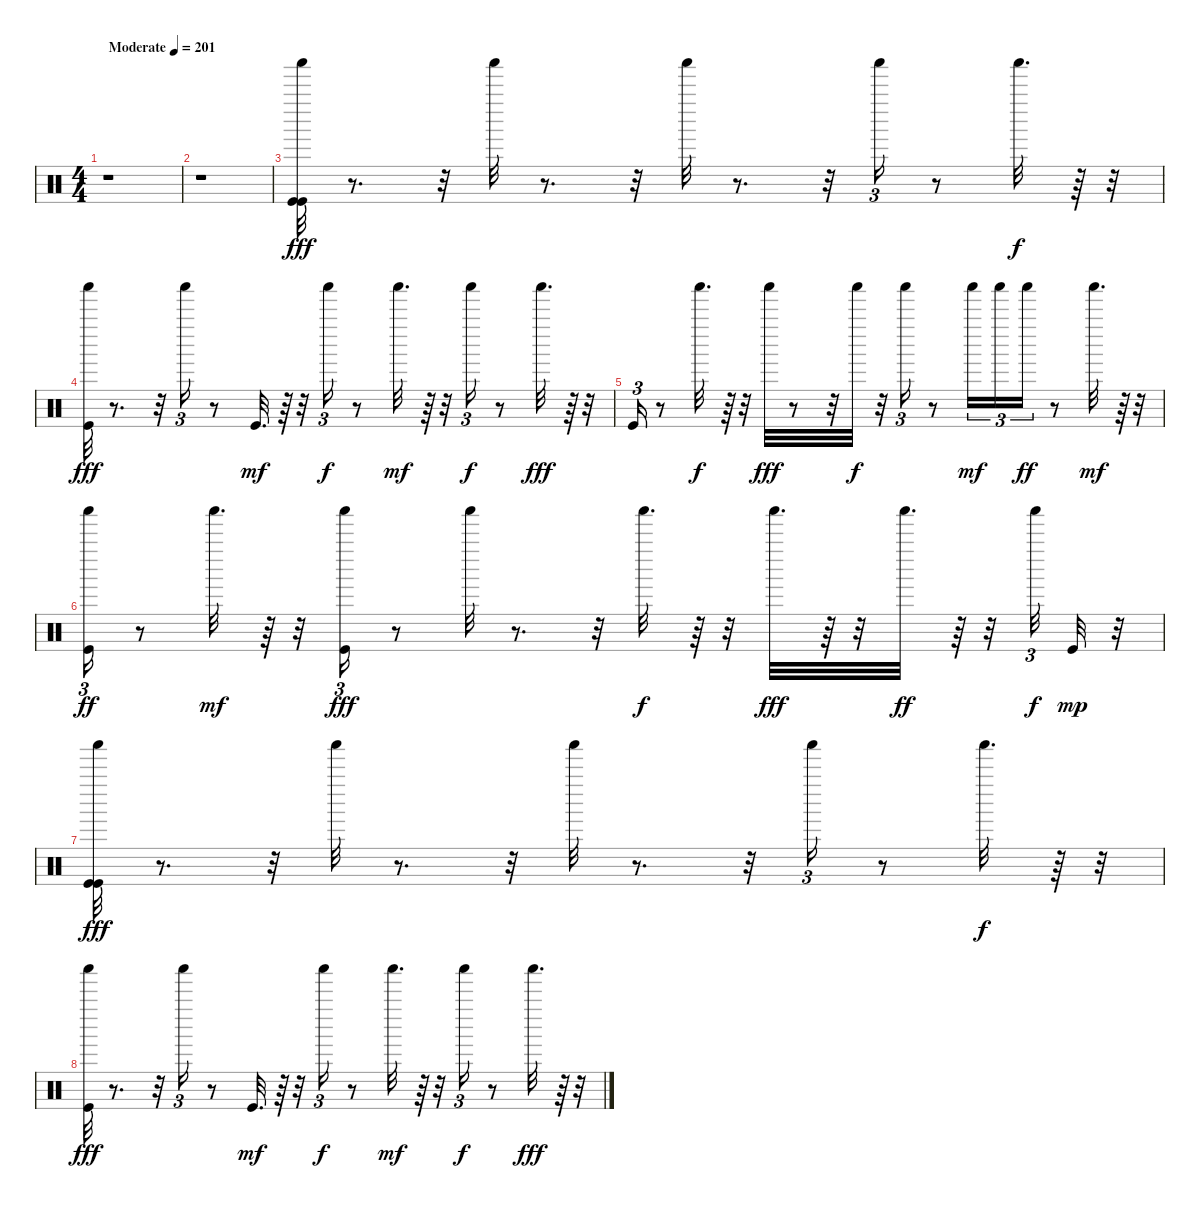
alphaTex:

\track "" {instrument percussion}
\staff {score}
\articulation defaults
\ts (4 4)
\tempo (201 "Moderate")
\clef neutral
\ks c
r.1{dy fff} |
r.1 |
("Shaker (hit)" "Kick (hit)" "Kick (hit)").32 r.8{d} r.32 "Shaker (hit)".32 r.8{d} r.32 "Shaker (hit)".32 r.8{d} r.32 "Shaker (hit)".16{tu (3 2)} r.8 "Shaker (hit)".32{d dy f} r.64 r.32 |
("Shaker (hit)" "Kick (hit)").32{dy fff} r.8{d} r.32 "Shaker (hit)".16{tu (3 2)} r.8 "Kick (hit)".32{d dy mf} r.64 r.32 "Shaker (hit)".16{tu (3 2) dy f} r.8 "Shaker (hit)".32{d dy mf} r.64 r.32 "Shaker (hit)".16{tu (3 2) dy f} r.8 "Shaker (hit)".32{d dy fff} r.64 r.32 |
"Kick (hit)".16{tu (3 2)} r.8 "Shaker (hit)".32{d dy f} r.64 r.32 "Shaker (hit)".32{dy fff} r.8 r.32 "Shaker (hit)".32{dy f} r.32 "Shaker (hit)".16{tu (3 2)} r.8 "Shaker (hit)".16{tu (3 2) dy mf} "Shaker (hit)".16{tu (3 2)} "Shaker (hit)".16{tu (3 2) dy ff} r.8 "Shaker (hit)".32{d dy mf} r.64 r.32 |
("Shaker (hit)" "Kick (hit)").16{tu (3 2) dy ff} r.8 "Shaker (hit)".32{d dy mf} r.64 r.32 ("Shaker (hit)" "Kick (hit)").16{tu (3 2) dy fff} r.8 "Shaker (hit)".32 r.8{d} r.32 "Shaker (hit)".32{d dy f} r.64 r.32 "Shaker (hit)".32{d dy fff} r.64 r.32 "Shaker (hit)".32{d dy ff} r.64 r.32 "Shaker (hit)".32{tu (3 2) dy f} "Kick (hit)".32{dy mp} r.32 |
("Shaker (hit)" "Kick (hit)" "Kick (hit)").32{dy fff} r.8{d} r.32 "Shaker (hit)".32 r.8{d} r.32 "Shaker (hit)".32 r.8{d} r.32 "Shaker (hit)".16{tu (3 2)} r.8 "Shaker (hit)".32{d dy f} r.64 r.32 |
("Shaker (hit)" "Kick (hit)").32{dy fff} r.8{d} r.32 "Shaker (hit)".16{tu (3 2)} r.8 "Kick (hit)".32{d dy mf} r.64 r.32 "Shaker (hit)".16{tu (3 2) dy f} r.8 "Shaker (hit)".32{d dy mf} r.64 r.32 "Shaker (hit)".16{tu (3 2) dy f} r.8 "Shaker (hit)".32{d dy fff} r.64 r.32
